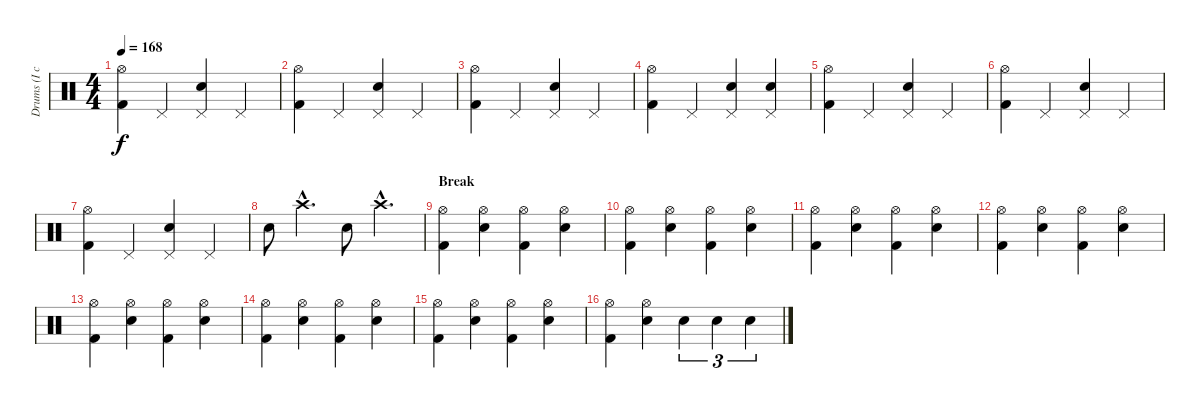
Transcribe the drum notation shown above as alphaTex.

\track ("Drums (I can't tab drums too well...)" "Drums (I c") {instrument percussion}
\staff {score}
\articulation defaults
\ts (4 4)
\tempo 168
\clef neutral
\ks c
("Hi-Hat (open)" "Kick (hit) 2").4{dy f} "Pedal Hi-Hat (hit)".4 ("Pedal Hi-Hat (hit)" "Snare (hit) 2").4 "Pedal Hi-Hat (hit)".4 |
("Hi-Hat (open)" "Kick (hit) 2").4 "Pedal Hi-Hat (hit)".4 ("Pedal Hi-Hat (hit)" "Snare (hit) 2").4 "Pedal Hi-Hat (hit)".4 |
("Hi-Hat (open)" "Kick (hit) 2").4 "Pedal Hi-Hat (hit)".4 ("Pedal Hi-Hat (hit)" "Snare (hit) 2").4 "Pedal Hi-Hat (hit)".4 |
("Hi-Hat (open)" "Kick (hit) 2").4 "Pedal Hi-Hat (hit)".4 ("Pedal Hi-Hat (hit)" "Snare (hit) 2").4 ("Pedal Hi-Hat (hit)" "Snare (hit) 2").4 |
("Hi-Hat (open)" "Kick (hit) 2").4 "Pedal Hi-Hat (hit)".4 ("Pedal Hi-Hat (hit)" "Snare (hit) 2").4 "Pedal Hi-Hat (hit)".4 |
("Hi-Hat (open)" "Kick (hit) 2").4 "Pedal Hi-Hat (hit)".4 ("Pedal Hi-Hat (hit)" "Snare (hit) 2").4 "Pedal Hi-Hat (hit)".4 |
("Hi-Hat (open)" "Kick (hit) 2").4 "Pedal Hi-Hat (hit)".4 ("Pedal Hi-Hat (hit)" "Snare (hit) 2").4 "Pedal Hi-Hat (hit)".4 |
"Snare (hit) 2".8 "Crash high (hit)"{hac}.4{d} "Snare (hit) 2".8 "Crash high (hit)"{hac}.4{d} |
\section ("" "Break")
("Hi-Hat (open)" "Kick (hit) 2").4 ("Hi-Hat (open)" "Snare (hit) 2").4 ("Hi-Hat (open)" "Kick (hit) 2").4 ("Hi-Hat (open)" "Snare (hit) 2").4 |
("Hi-Hat (open)" "Kick (hit) 2").4 ("Hi-Hat (open)" "Snare (hit) 2").4 ("Hi-Hat (open)" "Kick (hit) 2").4 ("Hi-Hat (open)" "Snare (hit) 2").4 |
("Hi-Hat (open)" "Kick (hit) 2").4 ("Hi-Hat (open)" "Snare (hit) 2").4 ("Hi-Hat (open)" "Kick (hit) 2").4 ("Hi-Hat (open)" "Snare (hit) 2").4 |
("Hi-Hat (open)" "Kick (hit) 2").4 ("Hi-Hat (open)" "Snare (hit) 2").4 ("Hi-Hat (open)" "Kick (hit) 2").4 ("Hi-Hat (open)" "Snare (hit) 2").4 |
("Hi-Hat (open)" "Kick (hit) 2").4 ("Hi-Hat (open)" "Snare (hit) 2").4 ("Hi-Hat (open)" "Kick (hit) 2").4 ("Hi-Hat (open)" "Snare (hit) 2").4 |
("Hi-Hat (open)" "Kick (hit) 2").4 ("Hi-Hat (open)" "Snare (hit) 2").4 ("Hi-Hat (open)" "Kick (hit) 2").4 ("Hi-Hat (open)" "Snare (hit) 2").4 |
("Hi-Hat (open)" "Kick (hit) 2").4 ("Hi-Hat (open)" "Snare (hit) 2").4 ("Hi-Hat (open)" "Kick (hit) 2").4 ("Hi-Hat (open)" "Snare (hit) 2").4 |
("Hi-Hat (open)" "Kick (hit) 2").4 ("Hi-Hat (open)" "Snare (hit) 2").4 "Snare (hit) 2".4{tu (3 2)} "Snare (hit) 2".4{tu (3 2)} "Snare (hit) 2".4{tu (3 2)}
